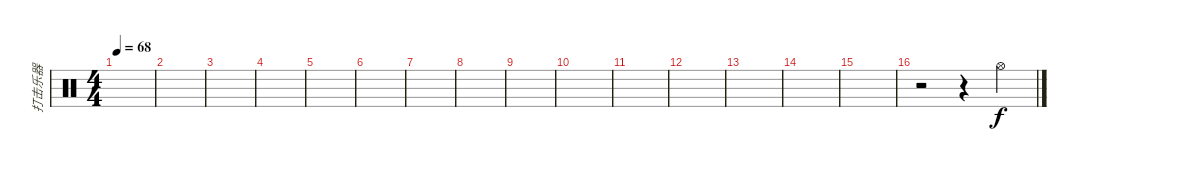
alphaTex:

\track ("打击乐器" "打击乐器") {instrument percussion}
\staff {score}
\articulation defaults
\ts (4 4)
\tempo 68
\clef neutral
\ks c
|
|
|
|
|
|
|
|
|
|
|
|
|
|
|
r.2 r.4 "Hi-Hat (open)".4
